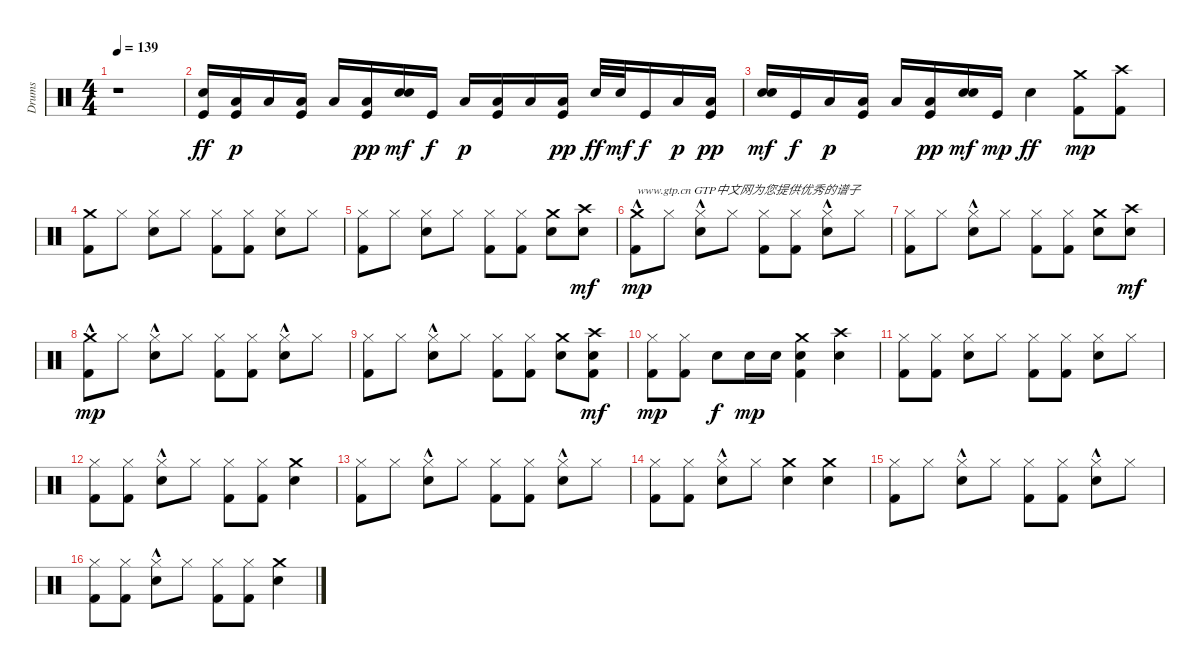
\track ("Drums" "Drums") {instrument percussion}
\staff {score}
\articulation defaults
\ts (4 4)
\tempo 139
\clef neutral
\ks c
r.1{dy ff} |
("Kick (hit)" "Electric Snare (hit)").16 ("Low Floor Tom (hit)" "Kick (hit)").16{dy p} "Low Floor Tom (hit)".16 ("Low Floor Tom (hit)" "Kick (hit)").16 "Low Floor Tom (hit)".16 ("Low Floor Tom (hit)" "Kick (hit)").16{dy pp} ("Electric Snare (hit)" "Electric Snare (hit)").16{dy mf} "Kick (hit)".16{dy f} "Low Floor Tom (hit)".16{dy p} ("Low Floor Tom (hit)" "Kick (hit)").16 "Low Floor Tom (hit)".16 ("Low Floor Tom (hit)" "Kick (hit)").16{dy pp} "Electric Snare (hit)".32{dy ff} "Electric Snare (hit)".32{dy mf} "Kick (hit)".16{dy f} "Low Floor Tom (hit)".16{dy p} ("Low Floor Tom (hit)" "Kick (hit)").16{dy pp} |
("Electric Snare (hit)" "Electric Snare (hit)").16{dy mf} "Kick (hit)".16{dy f} "Low Floor Tom (hit)".16{dy p} ("Low Floor Tom (hit)" "Kick (hit)").16 "Low Floor Tom (hit)".16 ("Low Floor Tom (hit)" "Kick (hit)").16{dy pp} ("Electric Snare (hit)" "Electric Snare (hit)").16{dy mf} "Kick (hit)".16{dy mp} "Electric Snare (hit)".4{dy ff} ("Kick (hit) 2" "Crash medium (hit)").8{dy mp} ("Kick (hit) 2" "Crash high (hit)").8 |
("Kick (hit) 2" "Crash medium (hit)").8 "Hi-Hat (closed)".8 ("Hi-Hat (closed)" "Electric Snare (hit)").8 "Hi-Hat (closed)".8 ("Kick (hit) 2" "Hi-Hat (closed)").8 ("Kick (hit) 2" "Hi-Hat (closed)").8 ("Hi-Hat (closed)" "Electric Snare (hit)").8 "Hi-Hat (closed)".8 |
("Kick (hit) 2" "Hi-Hat (closed)").8 "Hi-Hat (closed)".8 ("Hi-Hat (closed)" "Electric Snare (hit)").8 "Hi-Hat (closed)".8 ("Kick (hit) 2" "Hi-Hat (closed)").8 ("Kick (hit) 2" "Hi-Hat (closed)").8 ("Crash medium (hit)" "Electric Snare (hit)").8 ("Crash high (hit)" "Electric Snare (hit)").8{dy mf} |
("Kick (hit) 2" "Crash medium (hit)"{hac}).8{txt "www.gtp.cn GTP中文网为您提供优秀的谱子" dy mp} "Hi-Hat (closed)".8 ("Hi-Hat (closed)" "Electric Snare (hit)"{hac}).8 "Hi-Hat (closed)".8 ("Kick (hit) 2" "Hi-Hat (closed)").8 ("Kick (hit) 2" "Hi-Hat (closed)").8 ("Hi-Hat (closed)" "Electric Snare (hit)"{hac}).8 "Hi-Hat (closed)".8 |
("Kick (hit) 2" "Hi-Hat (closed)").8 "Hi-Hat (closed)".8 ("Hi-Hat (closed)" "Electric Snare (hit)"{hac}).8 "Hi-Hat (closed)".8 ("Kick (hit) 2" "Hi-Hat (closed)").8 ("Kick (hit) 2" "Hi-Hat (closed)").8 ("Crash medium (hit)" "Electric Snare (hit)").8 ("Crash high (hit)" "Electric Snare (hit)").8{dy mf} |
("Kick (hit) 2" "Crash medium (hit)"{hac}).8{dy mp} "Hi-Hat (closed)".8 ("Hi-Hat (closed)" "Electric Snare (hit)"{hac}).8 "Hi-Hat (closed)".8 ("Kick (hit) 2" "Hi-Hat (closed)").8 ("Kick (hit) 2" "Hi-Hat (closed)").8 ("Hi-Hat (closed)" "Electric Snare (hit)"{hac}).8 "Hi-Hat (closed)".8 |
("Kick (hit) 2" "Hi-Hat (closed)").8 "Hi-Hat (closed)".8 ("Hi-Hat (closed)" "Electric Snare (hit)"{hac}).8 "Hi-Hat (closed)".8 ("Kick (hit) 2" "Hi-Hat (closed)").8 ("Kick (hit) 2" "Hi-Hat (closed)").8 ("Crash medium (hit)" "Electric Snare (hit)").8 ("Kick (hit) 2" "Crash high (hit)" "Electric Snare (hit)").8{dy mf} |
("Kick (hit) 2" "Hi-Hat (closed)").8{dy mp} ("Kick (hit) 2" "Hi-Hat (closed)").8 "Electric Snare (hit)".8{dy f} "Electric Snare (hit)".16{dy mp} "Electric Snare (hit)".16 ("Kick (hit) 2" "Crash medium (hit)" "Electric Snare (hit)").4 ("Crash high (hit)" "Electric Snare (hit)").4 |
("Kick (hit) 2" "Hi-Hat (closed)").8 ("Kick (hit) 2" "Hi-Hat (closed)").8 ("Hi-Hat (closed)" "Electric Snare (hit)").8 "Hi-Hat (closed)".8 ("Kick (hit) 2" "Hi-Hat (closed)").8 ("Kick (hit) 2" "Hi-Hat (closed)").8 ("Hi-Hat (closed)" "Electric Snare (hit)").8 "Hi-Hat (closed)".8 |
("Kick (hit) 2" "Hi-Hat (closed)").8 ("Kick (hit) 2" "Hi-Hat (closed)").8 ("Hi-Hat (closed)" "Electric Snare (hit)"{hac}).8 "Hi-Hat (closed)".8 ("Kick (hit) 2" "Hi-Hat (closed)").8 ("Kick (hit) 2" "Hi-Hat (closed)").8 ("Crash medium (hit)" "Electric Snare (hit)").4 |
("Kick (hit) 2" "Hi-Hat (closed)").8 "Hi-Hat (closed)".8 ("Hi-Hat (closed)" "Electric Snare (hit)"{hac}).8 "Hi-Hat (closed)".8 ("Kick (hit) 2" "Hi-Hat (closed)").8 ("Kick (hit) 2" "Hi-Hat (closed)").8 ("Hi-Hat (closed)" "Electric Snare (hit)"{hac}).8 "Hi-Hat (closed)".8 |
("Kick (hit) 2" "Hi-Hat (closed)").8 ("Kick (hit) 2" "Hi-Hat (closed)").8 ("Hi-Hat (closed)" "Electric Snare (hit)"{hac}).8 "Hi-Hat (closed)".8 ("Electric Snare (hit)" "Crash medium (hit)").4 ("Electric Snare (hit)" "Crash medium (hit)").4 |
("Kick (hit) 2" "Hi-Hat (closed)").8 "Hi-Hat (closed)".8 ("Hi-Hat (closed)" "Electric Snare (hit)"{hac}).8 "Hi-Hat (closed)".8 ("Kick (hit) 2" "Hi-Hat (closed)").8 ("Kick (hit) 2" "Hi-Hat (closed)").8 ("Hi-Hat (closed)" "Electric Snare (hit)"{hac}).8 "Hi-Hat (closed)".8 |
("Kick (hit) 2" "Hi-Hat (closed)").8 ("Kick (hit) 2" "Hi-Hat (closed)").8 ("Hi-Hat (closed)" "Electric Snare (hit)"{hac}).8 "Hi-Hat (closed)".8 ("Kick (hit) 2" "Hi-Hat (closed)").8 ("Kick (hit) 2" "Hi-Hat (closed)").8 ("Crash medium (hit)" "Electric Snare (hit)").4
